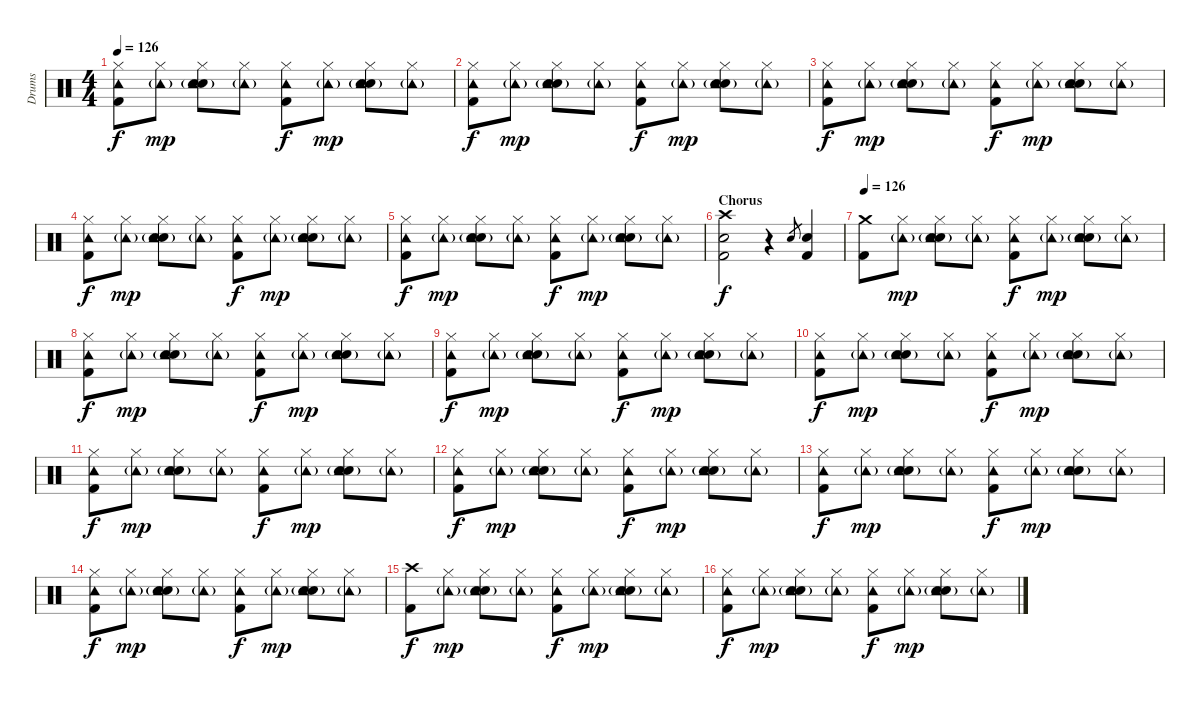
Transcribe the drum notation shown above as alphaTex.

\track ("Drums" "Drums") {instrument percussion}
\staff {score}
\articulation defaults
\ts (4 4)
\tempo 126
\clef neutral
\ks c
("Kick (hit) 2" "Hi-Hat (closed)" "Tambourine (hit)").8{dy f} ("Hi-Hat (closed)" "Tambourine (hit)"{g}).8{dy mp} ("Snare (hit) 2" "Hi-Hat (closed)" "Tambourine (hit)" "Hand Clap (hit)"{g}).8 ("Hi-Hat (closed)" "Tambourine (hit)"{g}).8 ("Kick (hit) 2" "Hi-Hat (closed)" "Tambourine (hit)").8{dy f} ("Hi-Hat (closed)" "Tambourine (hit)"{g}).8{dy mp} ("Snare (hit) 2" "Hi-Hat (closed)" "Tambourine (hit)" "Hand Clap (hit)"{g}).8 ("Hi-Hat (closed)" "Tambourine (hit)"{g}).8 |
("Kick (hit) 2" "Hi-Hat (closed)" "Tambourine (hit)").8{dy f} ("Hi-Hat (closed)" "Tambourine (hit)"{g}).8{dy mp} ("Snare (hit) 2" "Hi-Hat (closed)" "Tambourine (hit)" "Hand Clap (hit)"{g}).8 ("Hi-Hat (closed)" "Tambourine (hit)"{g}).8 ("Kick (hit) 2" "Hi-Hat (closed)" "Tambourine (hit)").8{dy f} ("Hi-Hat (closed)" "Tambourine (hit)"{g}).8{dy mp} ("Snare (hit) 2" "Hi-Hat (closed)" "Tambourine (hit)" "Hand Clap (hit)"{g}).8 ("Hi-Hat (closed)" "Tambourine (hit)"{g}).8 |
("Kick (hit) 2" "Hi-Hat (closed)" "Tambourine (hit)").8{dy f} ("Hi-Hat (closed)" "Tambourine (hit)"{g}).8{dy mp} ("Snare (hit) 2" "Hi-Hat (closed)" "Tambourine (hit)" "Hand Clap (hit)"{g}).8 ("Hi-Hat (closed)" "Tambourine (hit)"{g}).8 ("Kick (hit) 2" "Hi-Hat (closed)" "Tambourine (hit)").8{dy f} ("Hi-Hat (closed)" "Tambourine (hit)"{g}).8{dy mp} ("Snare (hit) 2" "Hi-Hat (closed)" "Tambourine (hit)" "Hand Clap (hit)"{g}).8 ("Hi-Hat (closed)" "Tambourine (hit)"{g}).8 |
("Kick (hit) 2" "Hi-Hat (closed)" "Tambourine (hit)").8{dy f} ("Hi-Hat (closed)" "Tambourine (hit)"{g}).8{dy mp} ("Snare (hit) 2" "Hi-Hat (closed)" "Tambourine (hit)" "Hand Clap (hit)"{g}).8 ("Hi-Hat (closed)" "Tambourine (hit)"{g}).8 ("Kick (hit) 2" "Hi-Hat (closed)" "Tambourine (hit)").8{dy f} ("Hi-Hat (closed)" "Tambourine (hit)"{g}).8{dy mp} ("Snare (hit) 2" "Hi-Hat (closed)" "Tambourine (hit)" "Hand Clap (hit)"{g}).8 ("Hi-Hat (closed)" "Tambourine (hit)"{g}).8 |
("Kick (hit) 2" "Hi-Hat (closed)" "Tambourine (hit)").8{dy f} ("Hi-Hat (closed)" "Tambourine (hit)"{g}).8{dy mp} ("Snare (hit) 2" "Hi-Hat (closed)" "Tambourine (hit)" "Hand Clap (hit)"{g}).8 ("Hi-Hat (closed)" "Tambourine (hit)"{g}).8 ("Kick (hit) 2" "Hi-Hat (closed)" "Tambourine (hit)").8{dy f} ("Hi-Hat (closed)" "Tambourine (hit)"{g}).8{dy mp} ("Snare (hit) 2" "Hi-Hat (closed)" "Tambourine (hit)" "Hand Clap (hit)"{g}).8 ("Hi-Hat (closed)" "Tambourine (hit)"{g}).8 |
\section ("" "Chorus")
("Kick (hit) 2" "Snare (hit) 2" "Crash high (hit)").2{dy f} r.4 "Snare (hit) 2".8{gr} ("Kick (hit) 2" "Snare (hit) 2").4 |
\tempo 126
("Kick (hit) 2" "Crash medium (hit)").8 ("Hi-Hat (closed)" "Tambourine (hit)"{g}).8{dy mp} ("Snare (hit) 2" "Hi-Hat (closed)" "Tambourine (hit)" "Hand Clap (hit)"{g}).8 ("Hi-Hat (closed)" "Tambourine (hit)"{g}).8 ("Kick (hit) 2" "Hi-Hat (closed)" "Tambourine (hit)").8{dy f} ("Hi-Hat (closed)" "Tambourine (hit)"{g}).8{dy mp} ("Snare (hit) 2" "Hi-Hat (closed)" "Tambourine (hit)" "Hand Clap (hit)"{g}).8 ("Hi-Hat (closed)" "Tambourine (hit)"{g}).8 |
("Kick (hit) 2" "Hi-Hat (closed)" "Tambourine (hit)").8{dy f} ("Hi-Hat (closed)" "Tambourine (hit)"{g}).8{dy mp} ("Snare (hit) 2" "Hi-Hat (closed)" "Tambourine (hit)" "Hand Clap (hit)"{g}).8 ("Hi-Hat (closed)" "Tambourine (hit)"{g}).8 ("Kick (hit) 2" "Hi-Hat (closed)" "Tambourine (hit)").8{dy f} ("Hi-Hat (closed)" "Tambourine (hit)"{g}).8{dy mp} ("Snare (hit) 2" "Hi-Hat (closed)" "Tambourine (hit)" "Hand Clap (hit)"{g}).8 ("Hi-Hat (closed)" "Tambourine (hit)"{g}).8 |
("Kick (hit) 2" "Hi-Hat (closed)" "Tambourine (hit)").8{dy f} ("Hi-Hat (closed)" "Tambourine (hit)"{g}).8{dy mp} ("Snare (hit) 2" "Hi-Hat (closed)" "Tambourine (hit)" "Hand Clap (hit)"{g}).8 ("Hi-Hat (closed)" "Tambourine (hit)"{g}).8 ("Kick (hit) 2" "Hi-Hat (closed)" "Tambourine (hit)").8{dy f} ("Hi-Hat (closed)" "Tambourine (hit)"{g}).8{dy mp} ("Snare (hit) 2" "Hi-Hat (closed)" "Tambourine (hit)" "Hand Clap (hit)"{g}).8 ("Hi-Hat (closed)" "Tambourine (hit)"{g}).8 |
("Kick (hit) 2" "Hi-Hat (closed)" "Tambourine (hit)").8{dy f} ("Hi-Hat (closed)" "Tambourine (hit)"{g}).8{dy mp} ("Snare (hit) 2" "Hi-Hat (closed)" "Tambourine (hit)" "Hand Clap (hit)"{g}).8 ("Hi-Hat (closed)" "Tambourine (hit)"{g}).8 ("Kick (hit) 2" "Hi-Hat (closed)" "Tambourine (hit)").8{dy f} ("Hi-Hat (closed)" "Tambourine (hit)"{g}).8{dy mp} ("Snare (hit) 2" "Hi-Hat (closed)" "Tambourine (hit)" "Hand Clap (hit)"{g}).8 ("Hi-Hat (closed)" "Tambourine (hit)"{g}).8 |
("Kick (hit) 2" "Hi-Hat (closed)" "Tambourine (hit)").8{dy f} ("Hi-Hat (closed)" "Tambourine (hit)"{g}).8{dy mp} ("Snare (hit) 2" "Hi-Hat (closed)" "Tambourine (hit)" "Hand Clap (hit)"{g}).8 ("Hi-Hat (closed)" "Tambourine (hit)"{g}).8 ("Kick (hit) 2" "Hi-Hat (closed)" "Tambourine (hit)").8{dy f} ("Hi-Hat (closed)" "Tambourine (hit)"{g}).8{dy mp} ("Snare (hit) 2" "Hi-Hat (closed)" "Tambourine (hit)" "Hand Clap (hit)"{g}).8 ("Hi-Hat (closed)" "Tambourine (hit)"{g}).8 |
("Kick (hit) 2" "Hi-Hat (closed)" "Tambourine (hit)").8{dy f} ("Hi-Hat (closed)" "Tambourine (hit)"{g}).8{dy mp} ("Snare (hit) 2" "Hi-Hat (closed)" "Tambourine (hit)" "Hand Clap (hit)"{g}).8 ("Hi-Hat (closed)" "Tambourine (hit)"{g}).8 ("Kick (hit) 2" "Hi-Hat (closed)" "Tambourine (hit)").8{dy f} ("Hi-Hat (closed)" "Tambourine (hit)"{g}).8{dy mp} ("Snare (hit) 2" "Hi-Hat (closed)" "Tambourine (hit)" "Hand Clap (hit)"{g}).8 ("Hi-Hat (closed)" "Tambourine (hit)"{g}).8 |
("Kick (hit) 2" "Hi-Hat (closed)" "Tambourine (hit)").8{dy f} ("Hi-Hat (closed)" "Tambourine (hit)"{g}).8{dy mp} ("Snare (hit) 2" "Hi-Hat (closed)" "Tambourine (hit)" "Hand Clap (hit)"{g}).8 ("Hi-Hat (closed)" "Tambourine (hit)"{g}).8 ("Kick (hit) 2" "Hi-Hat (closed)" "Tambourine (hit)").8{dy f} ("Hi-Hat (closed)" "Tambourine (hit)"{g}).8{dy mp} ("Snare (hit) 2" "Hi-Hat (closed)" "Tambourine (hit)" "Hand Clap (hit)"{g}).8 ("Hi-Hat (closed)" "Tambourine (hit)"{g}).8 |
\section ("" "")
("Kick (hit) 2" "Hi-Hat (closed)" "Tambourine (hit)").8{dy f} ("Hi-Hat (closed)" "Tambourine (hit)"{g}).8{dy mp} ("Snare (hit) 2" "Hi-Hat (closed)" "Tambourine (hit)" "Hand Clap (hit)"{g}).8 ("Hi-Hat (closed)" "Tambourine (hit)"{g}).8 ("Kick (hit) 2" "Hi-Hat (closed)" "Tambourine (hit)").8{dy f} ("Hi-Hat (closed)" "Tambourine (hit)"{g}).8{dy mp} ("Snare (hit) 2" "Hi-Hat (closed)" "Tambourine (hit)" "Hand Clap (hit)"{g}).8 ("Hi-Hat (closed)" "Tambourine (hit)"{g}).8 |
("Kick (hit) 2" "Crash high (hit)").8{dy f} ("Hi-Hat (closed)" "Tambourine (hit)"{g}).8{dy mp} ("Snare (hit) 2" "Hi-Hat (closed)" "Tambourine (hit)" "Hand Clap (hit)"{g}).8 ("Hi-Hat (closed)" "Tambourine (hit)"{g}).8 ("Kick (hit) 2" "Hi-Hat (closed)" "Tambourine (hit)").8{dy f} ("Hi-Hat (closed)" "Tambourine (hit)"{g}).8{dy mp} ("Snare (hit) 2" "Hi-Hat (closed)" "Tambourine (hit)" "Hand Clap (hit)"{g}).8 ("Hi-Hat (closed)" "Tambourine (hit)"{g}).8 |
("Kick (hit) 2" "Hi-Hat (closed)" "Tambourine (hit)").8{dy f} ("Hi-Hat (closed)" "Tambourine (hit)"{g}).8{dy mp} ("Snare (hit) 2" "Hi-Hat (closed)" "Tambourine (hit)" "Hand Clap (hit)"{g}).8 ("Hi-Hat (closed)" "Tambourine (hit)"{g}).8 ("Kick (hit) 2" "Hi-Hat (closed)" "Tambourine (hit)").8{dy f} ("Hi-Hat (closed)" "Tambourine (hit)"{g}).8{dy mp} ("Snare (hit) 2" "Hi-Hat (closed)" "Tambourine (hit)" "Hand Clap (hit)"{g}).8 ("Hi-Hat (closed)" "Tambourine (hit)"{g}).8
